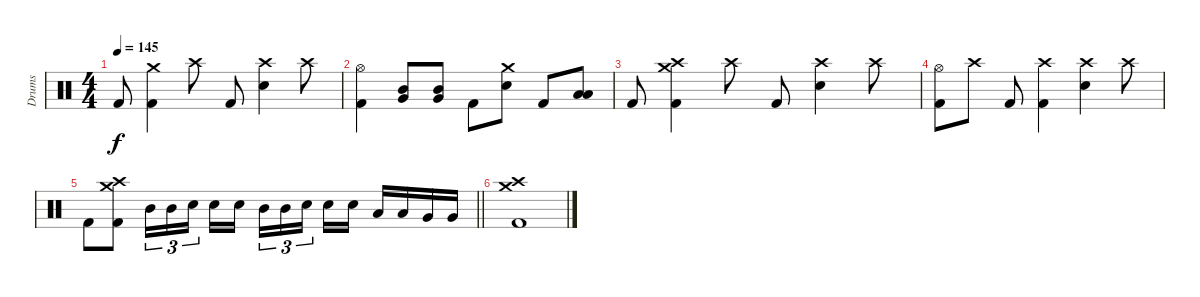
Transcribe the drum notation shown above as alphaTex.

\track ("Drums" "Drums") {instrument percussion}
\staff {score}
\articulation defaults
\ts (4 4)
\tempo 145
\clef neutral
\ks c "Kick (hit) 2".8{dy f}
("Crash medium (hit)" "Kick (hit) 2").4 "Crash high (hit)".8 "Kick (hit) 2".8 ("Crash high (hit)" "Electric Snare (hit)").4 "Crash high (hit)".8 |
("Hi-Hat (open)" "Kick (hit) 2").4 ("Mid Tom (hit)" "Very Low Tom (hit)").8 ("Mid Tom (hit)" "Very Low Tom (hit)").8 "Kick (hit) 2".8 ("Crash medium (hit)" "Electric Snare (hit)").8 "Kick (hit) 2".8 ("Low Tom (hit)" "Low Floor Tom (hit)").8 |
"Kick (hit) 2".8 ("Crash medium (hit)" "Crash high (hit)" "Kick (hit) 2").4 "Crash high (hit)".8 "Kick (hit) 2".8 ("Crash high (hit)" "Electric Snare (hit)").4 "Crash high (hit)".8 |
("Hi-Hat (open)" "Kick (hit) 2").8 "Crash high (hit)".8 "Kick (hit) 2".8 ("Crash high (hit)" "Kick (hit) 2").4 ("Crash high (hit)" "Electric Snare (hit)").4 "Crash high (hit)".8 |
\barLineRight lightlight "Kick (hit) 2".8
("Crash medium (hit)" "Crash high (hit)" "Kick (hit) 2").8 "Mid Tom (hit)".16{tu (3 2)} "Mid Tom (hit)".16{tu (3 2)} "Electric Snare (hit)".16{tu (3 2)} "Electric Snare (hit)".16 "Electric Snare (hit)".16 "Mid Tom (hit)".16{tu (3 2)} "Mid Tom (hit)".16{tu (3 2)} "Electric Snare (hit)".16{tu (3 2)} "Electric Snare (hit)".16 "Electric Snare (hit)".16 "Low Tom (hit)".16 "Low Tom (hit)".16 "Very Low Tom (hit)".16 "Very Low Tom (hit)".16 |
("Crash medium (hit)" "Crash high (hit)" "Kick (hit) 2").1
